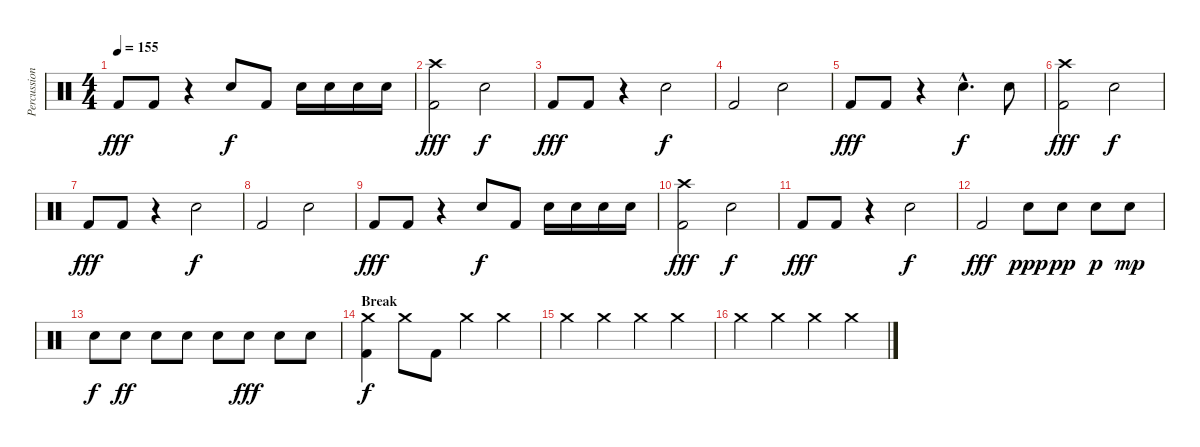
\track ("Percussion" "Percussion") {instrument percussion}
\staff {score}
\articulation defaults
\ts (4 4)
\tempo 155
\clef neutral
\ks c "Kick (hit) 2".8{dy fff} "Kick (hit) 2".8
r.4 "Snare (hit) 2".8{dy f} "Kick (hit) 2".8 "Snare (hit) 2".16 "Snare (hit) 2".16 "Snare (hit) 2".16 "Snare (hit) 2".16 |
("Crash high (hit)" "Kick (hit) 2").2{dy fff} "Snare (hit) 2".2{dy f} |
"Kick (hit) 2".8{dy fff} "Kick (hit) 2".8 r.4 "Snare (hit) 2".2{dy f} |
"Kick (hit) 2".2 "Snare (hit) 2".2 |
"Kick (hit) 2".8{dy fff} "Kick (hit) 2".8 r.4 "Snare (hit) 2"{hac}.4{d dy f} "Electric Snare (hit)".8 |
("Crash high (hit)" "Kick (hit) 2").2{dy fff} "Snare (hit) 2".2{dy f} |
"Kick (hit) 2".8{dy fff} "Kick (hit) 2".8 r.4 "Snare (hit) 2".2{dy f} |
"Kick (hit) 2".2 "Snare (hit) 2".2 |
"Kick (hit) 2".8{dy fff} "Kick (hit) 2".8 r.4 "Snare (hit) 2".8{dy f} "Kick (hit) 2".8 "Snare (hit) 2".16 "Snare (hit) 2".16 "Snare (hit) 2".16 "Snare (hit) 2".16 |
("Crash high (hit)" "Kick (hit) 2").2{dy fff} "Snare (hit) 2".2{dy f} |
"Kick (hit) 2".8{dy fff} "Kick (hit) 2".8 r.4 "Snare (hit) 2".2{dy f} |
"Kick (hit) 2".2{dy fff} "Snare (hit) 2".8{dy ppp} "Snare (hit) 2".8{dy pp} "Snare (hit) 2".8{dy p} "Snare (hit) 2".8{dy mp} |
"Snare (hit) 2".8{dy f} "Snare (hit) 2".8{dy ff} "Snare (hit) 2".8 "Snare (hit) 2".8 "Snare (hit) 2".8 "Snare (hit) 2".8{dy fff} "Snare (hit) 2".8 "Snare (hit) 2".8 |
\section ("" "Break")
("Crash medium (hit)" "Kick (hit) 2").4{dy f} "Crash medium (hit)".8 "Kick (hit) 2".8 "Crash medium (hit)".4 "Crash medium (hit)".4 |
"Crash medium (hit)".4 "Crash medium (hit)".4 "Crash medium (hit)".4 "Crash medium (hit)".4 |
"Crash medium (hit)".4 "Crash medium (hit)".4 "Crash medium (hit)".4 "Crash medium (hit)".4
